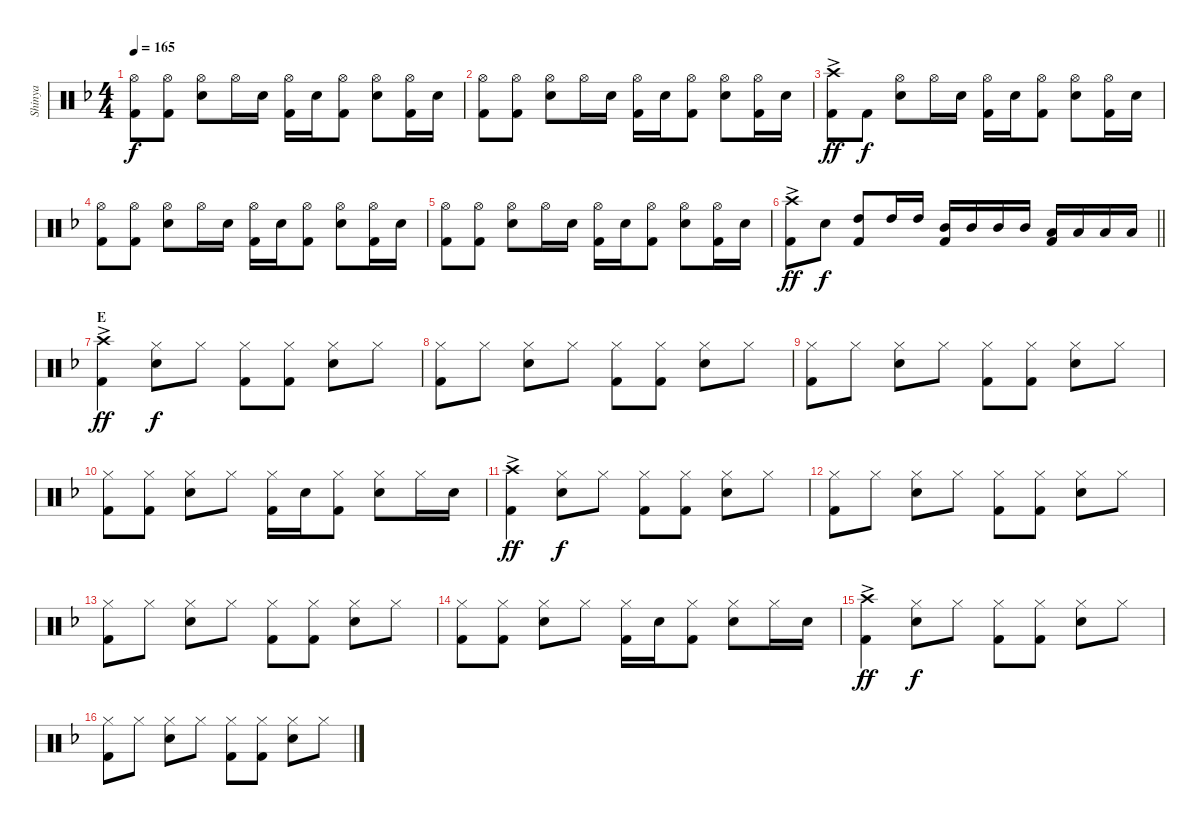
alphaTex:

\track ("Shinya" "Shinya") {instrument percussion}
\staff {score}
\articulation defaults
\ts (4 4)
\tempo 165
\clef neutral
\ks dminor
("Hi-Hat (open)" "Kick (hit) 2").8{dy f} ("Hi-Hat (open)" "Kick (hit) 2").8 ("Hi-Hat (open)" "Snare (hit) 2").8 "Hi-Hat (open)".16 "Snare (hit) 2".16 ("Hi-Hat (open)" "Kick (hit) 2").16 "Snare (hit) 2".16 ("Hi-Hat (open)" "Kick (hit) 2").8 ("Hi-Hat (open)" "Snare (hit) 2").8 ("Hi-Hat (open)" "Kick (hit) 2").16 "Snare (hit) 2".16 |
("Hi-Hat (open)" "Kick (hit) 2").8 ("Hi-Hat (open)" "Kick (hit) 2").8 ("Hi-Hat (open)" "Snare (hit) 2").8 "Hi-Hat (open)".16 "Snare (hit) 2".16 ("Hi-Hat (open)" "Kick (hit) 2").16 "Snare (hit) 2".16 ("Hi-Hat (open)" "Kick (hit) 2").8 ("Hi-Hat (open)" "Snare (hit) 2").8 ("Hi-Hat (open)" "Kick (hit) 2").16 "Snare (hit) 2".16 |
("Crash high (hit)"{ac} "Kick (hit) 2").8{dy ff} "Kick (hit) 2".8{dy f} ("Hi-Hat (open)" "Snare (hit) 2").8 "Hi-Hat (open)".16 "Snare (hit) 2".16 ("Hi-Hat (open)" "Kick (hit) 2").16 "Snare (hit) 2".16 ("Hi-Hat (open)" "Kick (hit) 2").8 ("Hi-Hat (open)" "Snare (hit) 2").8 ("Hi-Hat (open)" "Kick (hit) 2").16 "Snare (hit) 2".16 |
("Hi-Hat (open)" "Kick (hit) 2").8 ("Hi-Hat (open)" "Kick (hit) 2").8 ("Hi-Hat (open)" "Snare (hit) 2").8 "Hi-Hat (open)".16 "Snare (hit) 2".16 ("Hi-Hat (open)" "Kick (hit) 2").16 "Snare (hit) 2".16 ("Hi-Hat (open)" "Kick (hit) 2").8 ("Hi-Hat (open)" "Snare (hit) 2").8 ("Hi-Hat (open)" "Kick (hit) 2").16 "Snare (hit) 2".16 |
("Hi-Hat (open)" "Kick (hit) 2").8 ("Hi-Hat (open)" "Kick (hit) 2").8 ("Hi-Hat (open)" "Snare (hit) 2").8 "Hi-Hat (open)".16 "Snare (hit) 2".16 ("Hi-Hat (open)" "Kick (hit) 2").16 "Snare (hit) 2".16 ("Hi-Hat (open)" "Kick (hit) 2").8 ("Hi-Hat (open)" "Snare (hit) 2").8 ("Hi-Hat (open)" "Kick (hit) 2").16 "Snare (hit) 2".16 |
\barLineRight lightlight
("Crash high (hit)"{ac} "Kick (hit) 2").8{dy ff} "Snare (hit) 2".8{dy f} ("High Tom (hit)" "Kick (hit) 2").8 "High Tom (hit)".16 "High Tom (hit)".16 ("Mid Tom (hit)" "Kick (hit) 2").16 "Mid Tom (hit)".16 "Mid Tom (hit)".16 "Mid Tom (hit)".16 ("Low Tom (hit)" "Kick (hit) 2").16 "Low Tom (hit)".16 "Low Tom (hit)".16 "Low Tom (hit)".16 |
\section ("" "E")
("Crash high (hit)"{ac} "Kick (hit) 2").4{dy ff} ("Hi-Hat (closed)" "Snare (hit) 2").8{dy f} "Hi-Hat (closed)".8 ("Hi-Hat (closed)" "Kick (hit) 2").8 ("Hi-Hat (closed)" "Kick (hit) 2").8 ("Hi-Hat (closed)" "Snare (hit) 2").8 "Hi-Hat (closed)".8 |
("Hi-Hat (closed)" "Kick (hit) 2").8 "Hi-Hat (closed)".8 ("Hi-Hat (closed)" "Snare (hit) 2").8 "Hi-Hat (closed)".8 ("Hi-Hat (closed)" "Kick (hit) 2").8 ("Hi-Hat (closed)" "Kick (hit) 2").8 ("Hi-Hat (closed)" "Snare (hit) 2").8 "Hi-Hat (closed)".8 |
("Hi-Hat (closed)" "Kick (hit) 2").8 "Hi-Hat (closed)".8 ("Hi-Hat (closed)" "Snare (hit) 2").8 "Hi-Hat (closed)".8 ("Hi-Hat (closed)" "Kick (hit) 2").8 ("Hi-Hat (closed)" "Kick (hit) 2").8 ("Hi-Hat (closed)" "Snare (hit) 2").8 "Hi-Hat (closed)".8 |
("Hi-Hat (closed)" "Kick (hit) 2").8 ("Hi-Hat (closed)" "Kick (hit) 2").8 ("Hi-Hat (closed)" "Snare (hit) 2").8 "Hi-Hat (closed)".8 ("Hi-Hat (closed)" "Kick (hit) 2").16 "Snare (hit) 2".16 ("Hi-Hat (closed)" "Kick (hit) 2").8 ("Hi-Hat (closed)" "Snare (hit) 2").8 "Hi-Hat (closed)".16 "Snare (hit) 2".16 |
("Crash high (hit)"{ac} "Kick (hit) 2").4{dy ff} ("Hi-Hat (closed)" "Snare (hit) 2").8{dy f} "Hi-Hat (closed)".8 ("Hi-Hat (closed)" "Kick (hit) 2").8 ("Hi-Hat (closed)" "Kick (hit) 2").8 ("Hi-Hat (closed)" "Snare (hit) 2").8 "Hi-Hat (closed)".8 |
("Hi-Hat (closed)" "Kick (hit) 2").8 "Hi-Hat (closed)".8 ("Hi-Hat (closed)" "Snare (hit) 2").8 "Hi-Hat (closed)".8 ("Hi-Hat (closed)" "Kick (hit) 2").8 ("Hi-Hat (closed)" "Kick (hit) 2").8 ("Hi-Hat (closed)" "Snare (hit) 2").8 "Hi-Hat (closed)".8 |
("Hi-Hat (closed)" "Kick (hit) 2").8 "Hi-Hat (closed)".8 ("Hi-Hat (closed)" "Snare (hit) 2").8 "Hi-Hat (closed)".8 ("Hi-Hat (closed)" "Kick (hit) 2").8 ("Hi-Hat (closed)" "Kick (hit) 2").8 ("Hi-Hat (closed)" "Snare (hit) 2").8 "Hi-Hat (closed)".8 |
("Hi-Hat (closed)" "Kick (hit) 2").8 ("Hi-Hat (closed)" "Kick (hit) 2").8 ("Hi-Hat (closed)" "Snare (hit) 2").8 "Hi-Hat (closed)".8 ("Hi-Hat (closed)" "Kick (hit) 2").16 "Snare (hit) 2".16 ("Hi-Hat (closed)" "Kick (hit) 2").8 ("Hi-Hat (closed)" "Snare (hit) 2").8 "Hi-Hat (closed)".16 "Snare (hit) 2".16 |
("Crash high (hit)"{ac} "Kick (hit) 2").4{dy ff} ("Hi-Hat (closed)" "Snare (hit) 2").8{dy f} "Hi-Hat (closed)".8 ("Hi-Hat (closed)" "Kick (hit) 2").8 ("Hi-Hat (closed)" "Kick (hit) 2").8 ("Hi-Hat (closed)" "Snare (hit) 2").8 "Hi-Hat (closed)".8 |
("Hi-Hat (closed)" "Kick (hit) 2").8 "Hi-Hat (closed)".8 ("Hi-Hat (closed)" "Snare (hit) 2").8 "Hi-Hat (closed)".8 ("Hi-Hat (closed)" "Kick (hit) 2").8 ("Hi-Hat (closed)" "Kick (hit) 2").8 ("Hi-Hat (closed)" "Snare (hit) 2").8 "Hi-Hat (closed)".8
